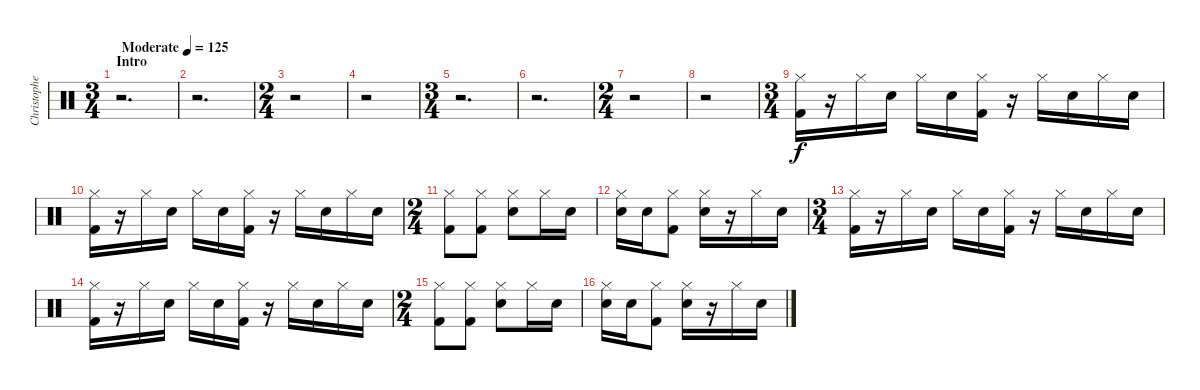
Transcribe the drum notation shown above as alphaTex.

\track ("Christopher - Drums" "Christophe") {instrument percussion}
\staff {score}
\articulation defaults
\ts (3 4)
\section ("" "Intro")
\tempo (125 "Moderate")
\clef neutral
\ks c
r.2{d dy f} |
r.2{d} |
\ts (2 4)
r.2 |
r.2 |
\ts (3 4)
r.2{d} |
r.2{d} |
\ts (2 4)
r.2 |
r.2 |
\ts (3 4)
("Hi-Hat (closed)" "Kick (hit) 2").16 r.16 "Hi-Hat (closed)".16 "Electric Snare (hit)".16 "Hi-Hat (closed)".16 "Electric Snare (hit)".16 ("Hi-Hat (closed)" "Kick (hit) 2").16 r.16 "Hi-Hat (closed)".16 "Electric Snare (hit)".16 "Hi-Hat (closed)".16 "Electric Snare (hit)".16 |
("Hi-Hat (closed)" "Kick (hit) 2").16 r.16 "Hi-Hat (closed)".16 "Electric Snare (hit)".16 "Hi-Hat (closed)".16 "Electric Snare (hit)".16 ("Hi-Hat (closed)" "Kick (hit) 2").16 r.16 "Hi-Hat (closed)".16 "Electric Snare (hit)".16 "Hi-Hat (closed)".16 "Electric Snare (hit)".16 |
\ts (2 4)
("Hi-Hat (closed)" "Kick (hit) 2").8 ("Hi-Hat (closed)" "Kick (hit) 2").8 ("Hi-Hat (closed)" "Electric Snare (hit)").8 "Hi-Hat (closed)".16 "Electric Snare (hit)".16 |
("Hi-Hat (closed)" "Electric Snare (hit)").16 "Electric Snare (hit)".16 ("Hi-Hat (closed)" "Kick (hit) 2").8 ("Hi-Hat (closed)" "Electric Snare (hit)").16 r.16 "Hi-Hat (closed)".16 "Electric Snare (hit)".16 |
\ts (3 4)
("Hi-Hat (closed)" "Kick (hit) 2").16 r.16 "Hi-Hat (closed)".16 "Electric Snare (hit)".16 "Hi-Hat (closed)".16 "Electric Snare (hit)".16 ("Hi-Hat (closed)" "Kick (hit) 2").16 r.16 "Hi-Hat (closed)".16 "Electric Snare (hit)".16 "Hi-Hat (closed)".16 "Electric Snare (hit)".16 |
("Hi-Hat (closed)" "Kick (hit) 2").16 r.16 "Hi-Hat (closed)".16 "Electric Snare (hit)".16 "Hi-Hat (closed)".16 "Electric Snare (hit)".16 ("Hi-Hat (closed)" "Kick (hit) 2").16 r.16 "Hi-Hat (closed)".16 "Electric Snare (hit)".16 "Hi-Hat (closed)".16 "Electric Snare (hit)".16 |
\ts (2 4)
("Hi-Hat (closed)" "Kick (hit) 2").8 ("Hi-Hat (closed)" "Kick (hit) 2").8 ("Hi-Hat (closed)" "Electric Snare (hit)").8 "Hi-Hat (closed)".16 "Electric Snare (hit)".16 |
("Hi-Hat (closed)" "Electric Snare (hit)").16 "Electric Snare (hit)".16 ("Hi-Hat (closed)" "Kick (hit) 2").8 ("Hi-Hat (closed)" "Electric Snare (hit)").16 r.16 "Hi-Hat (closed)".16 "Electric Snare (hit)".16
